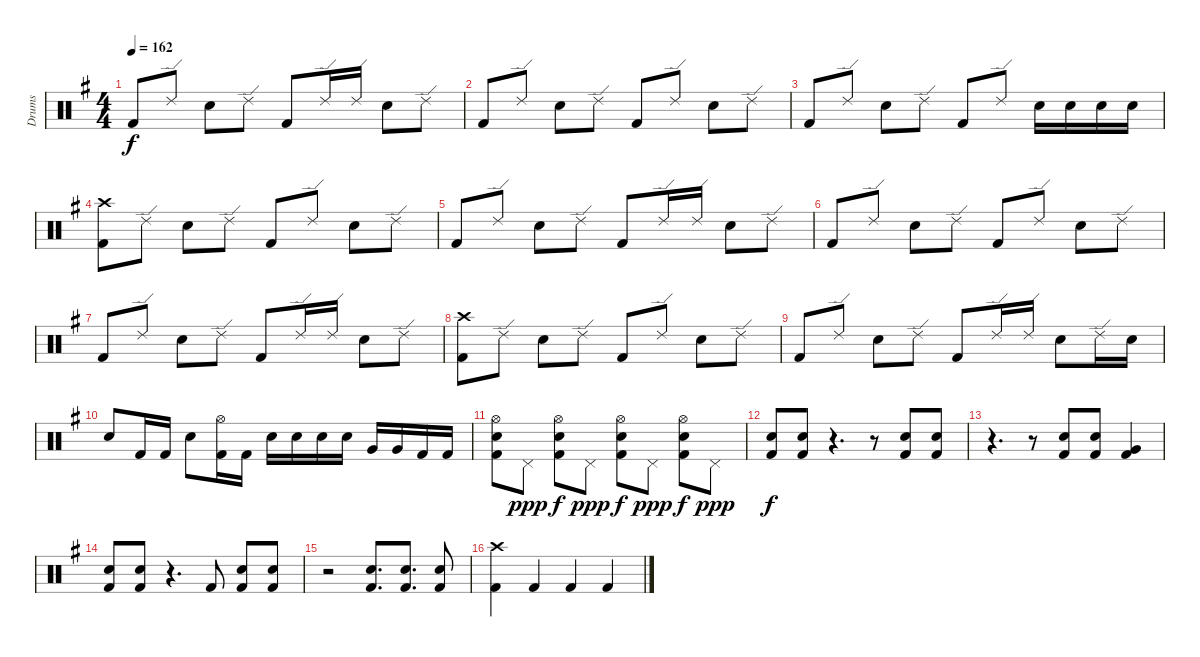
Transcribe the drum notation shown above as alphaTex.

\track ("Drums" "Drums") {instrument percussion}
\staff {score}
\articulation defaults
\ts (4 4)
\tempo 162
\clef neutral
\ks g "Kick (hit) 2".8{dy f} "Ride (edge) 2".8 "Electric Snare (hit)".8 "Ride (edge) 2".8 "Kick (hit) 2".8 "Ride (edge) 2".16 "Ride (edge) 2".16 "Electric Snare (hit)".8 "Ride (edge) 2".8
|
"Kick (hit) 2".8 "Ride (edge) 2".8 "Electric Snare (hit)".8 "Ride (edge) 2".8 "Kick (hit) 2".8 "Ride (edge) 2".8 "Electric Snare (hit)".8 "Ride (edge) 2".8 |
"Kick (hit) 2".8 "Ride (edge) 2".8 "Electric Snare (hit)".8 "Ride (edge) 2".8 "Kick (hit) 2".8 "Ride (edge) 2".8 "Electric Snare (hit)".16 "Electric Snare (hit)".16 "Electric Snare (hit)".16 "Electric Snare (hit)".16 |
("Crash high (hit)" "Kick (hit) 2").8 "Ride (edge) 2".8 "Electric Snare (hit)".8 "Ride (edge) 2".8 "Kick (hit) 2".8 "Ride (edge) 2".8 "Electric Snare (hit)".8 "Ride (edge) 2".8 |
"Kick (hit) 2".8 "Ride (edge) 2".8 "Electric Snare (hit)".8 "Ride (edge) 2".8 "Kick (hit) 2".8 "Ride (edge) 2".16 "Ride (edge) 2".16 "Electric Snare (hit)".8 "Ride (edge) 2".8 |
"Kick (hit) 2".8 "Ride (edge) 2".8 "Electric Snare (hit)".8 "Ride (edge) 2".8 "Kick (hit) 2".8 "Ride (edge) 2".8 "Electric Snare (hit)".8 "Ride (edge) 2".8 |
"Kick (hit) 2".8 "Ride (edge) 2".8 "Electric Snare (hit)".8 "Ride (edge) 2".8 "Kick (hit) 2".8 "Ride (edge) 2".16 "Ride (edge) 2".16 "Electric Snare (hit)".8 "Ride (edge) 2".8 |
("Crash high (hit)" "Kick (hit) 2").8 "Ride (edge) 2".8 "Electric Snare (hit)".8 "Ride (edge) 2".8 "Kick (hit) 2".8 "Ride (edge) 2".8 "Electric Snare (hit)".8 "Ride (edge) 2".8 |
"Kick (hit) 2".8 "Ride (edge) 2".8 "Electric Snare (hit)".8 "Ride (edge) 2".8 "Kick (hit) 2".8 "Ride (edge) 2".16 "Ride (edge) 2".16 "Electric Snare (hit)".8 "Ride (edge) 2".16 "Electric Snare (hit)".16 |
"Electric Snare (hit)".8 "Kick (hit) 2".16 "Kick (hit) 2".16 "Electric Snare (hit)".8 ("Hi-Hat (open)" "Kick (hit) 2").16 "Kick (hit) 2".16 "Electric Snare (hit)".16 "Electric Snare (hit)".16 "Electric Snare (hit)".16 "Electric Snare (hit)".16 "Very Low Tom (hit)".16 "Very Low Tom (hit)".16 "Kick (hit) 2".16 "Kick (hit) 2".16 |
("Hi-Hat (open)" "Electric Snare (hit)" "Kick (hit) 2").8 "Pedal Hi-Hat (hit)".8{dy ppp} ("Hi-Hat (open)" "Electric Snare (hit)" "Kick (hit) 2").8{dy f} "Pedal Hi-Hat (hit)".8{dy ppp} ("Hi-Hat (open)" "Electric Snare (hit)" "Kick (hit) 2").8{dy f} "Pedal Hi-Hat (hit)".8{dy ppp} ("Hi-Hat (open)" "Electric Snare (hit)" "Kick (hit) 2").8{dy f} "Pedal Hi-Hat (hit)".8{dy ppp} |
("Electric Snare (hit)" "Kick (hit) 2").8{dy f} ("Electric Snare (hit)" "Kick (hit) 2").8 r.4{d} r.8 ("Electric Snare (hit)" "Kick (hit) 2").8 ("Electric Snare (hit)" "Kick (hit) 2").8 |
r.4{d} r.8 ("Electric Snare (hit)" "Kick (hit) 2").8 ("Electric Snare (hit)" "Kick (hit) 2").8 ("Very Low Tom (hit)" "Kick (hit) 2").4 |
("Electric Snare (hit)" "Kick (hit) 2").8 ("Electric Snare (hit)" "Kick (hit) 2").8 r.4{d} "Kick (hit) 2".8 ("Electric Snare (hit)" "Kick (hit) 2").8 ("Electric Snare (hit)" "Kick (hit) 2").8 |
r.2 ("Electric Snare (hit)" "Kick (hit) 2").8{d} ("Electric Snare (hit)" "Kick (hit) 2").8{d} ("Electric Snare (hit)" "Kick (hit) 2").8 |
("Crash high (hit)" "Kick (hit) 2").4 "Kick (hit) 2".4 "Kick (hit) 2".4 "Kick (hit) 2".4
